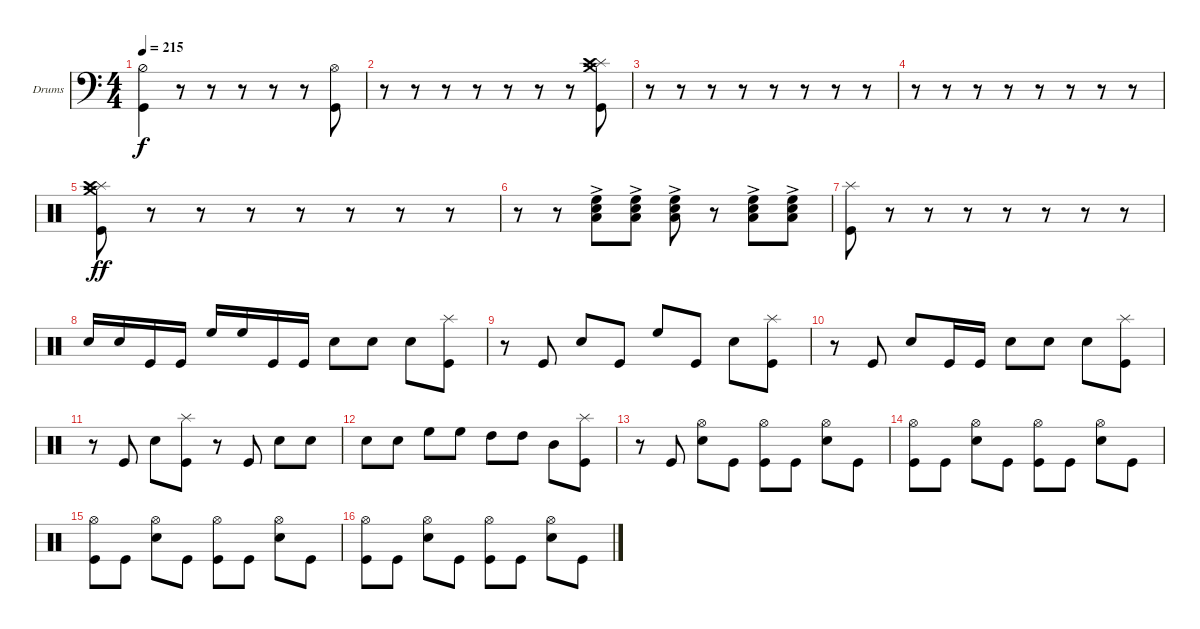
\bracketExtendMode groupsimilarinstruments
\firstSystemTrackNameOrientation horizontal
\otherSystemsTrackNameOrientation horizontal
\track ("Drumkit" "Drums") {instrument percussion}
\staff {score}
\articulation defaults
\ts (4 4)
\tempo 215
\clef f4
\ks c
("Kick (hit)" "Hi-Hat (half)").4{dy f} r.8 r.8 r.8 r.8 r.8 ("Kick (hit)" "Hi-Hat (open)").8 |
r.8 r.8 r.8 r.8 r.8 r.8 r.8 ("Kick (hit)" "Splash (hit)" "Crash high (hit)" "Crash medium (hit)").8 |
r.8 r.8 r.8 r.8 r.8 r.8 r.8 r.8 |
r.8 r.8 r.8 r.8 r.8 r.8 r.8 r.8 |
\clef neutral
("Kick (hit)" "Splash (hit)" "Crash high (hit)" "Crash medium (hit)").8{dy ff} r.8 r.8 r.8 r.8 r.8 r.8 r.8 |
r.8 r.8 ("Snare (hit) 2"{ac} "High Floor Tom (hit)"{ac} "Low Tom (hit)"{ac}).8 ("Snare (hit) 2"{ac} "High Floor Tom (hit)"{ac} "Low Tom (hit)"{ac}).8 ("Snare (hit) 2"{ac} "High Floor Tom (hit)"{ac} "Low Tom (hit)"{ac}).8 r.8 ("Snare (hit) 2"{ac} "High Floor Tom (hit)"{ac} "Low Tom (hit)"{ac}).8 ("Snare (hit) 2"{ac} "High Floor Tom (hit)"{ac} "Low Tom (hit)"{ac}).8 |
("Kick (hit)" "Splash (hit)").8 r.8 r.8 r.8 r.8 r.8 r.8 r.8 |
"Snare (hit) 2".16 "Snare (hit) 2".16 "Kick (hit)".16 "Kick (hit)".16 "High Floor Tom (hit)".16 "High Floor Tom (hit)".16 "Kick (hit)".16 "Kick (hit)".16 "Snare (hit) 2".8 "Snare (hit) 2".8 "Snare (hit) 2".8 ("Kick (hit)" "Splash (hit)").8 |
r.8 "Kick (hit)".8 "Snare (hit) 2".8 "Kick (hit)".8 "High Floor Tom (hit)".8 "Kick (hit)".8 "Snare (hit) 2".8 ("Kick (hit)" "Splash (hit)").8 |
r.8 "Kick (hit)".8 "Snare (hit) 2".8 "Kick (hit)".16 "Kick (hit)".16 "Snare (hit) 2".8 "Snare (hit) 2".8 "Snare (hit) 2".8 ("Kick (hit)" "Splash (hit)").8 |
r.8 "Kick (hit)".8 "Snare (hit) 2".8 ("Kick (hit)" "Splash (hit)").8 r.8 "Kick (hit)".8 "Snare (hit) 2".8 "Snare (hit) 2".8 |
"Snare (hit) 2".8 "Snare (hit) 2".8 "High Floor Tom (hit)".8 "High Floor Tom (hit)".8 "High Tom (hit)".8 "High Tom (hit)".8 "Mid Tom (hit)".8 ("Kick (hit)" "Splash (hit)").8 |
r.8 "Kick (hit)".8 ("Snare (hit) 2" "Hi-Hat (open)").8 "Kick (hit)".8 ("Kick (hit)" "Hi-Hat (open)").8 "Kick (hit)".8 ("Snare (hit) 2" "Hi-Hat (open)").8 "Kick (hit)".8 |
("Kick (hit)" "Hi-Hat (open)").8 "Kick (hit)".8 ("Snare (hit) 2" "Hi-Hat (open)").8 "Kick (hit)".8 ("Kick (hit)" "Hi-Hat (open)").8 "Kick (hit)".8 ("Snare (hit) 2" "Hi-Hat (open)").8 "Kick (hit)".8 |
("Kick (hit)" "Hi-Hat (open)").8 "Kick (hit)".8 ("Snare (hit) 2" "Hi-Hat (open)").8 "Kick (hit)".8 ("Kick (hit)" "Hi-Hat (open)").8 "Kick (hit)".8 ("Snare (hit) 2" "Hi-Hat (open)").8 "Kick (hit)".8 |
("Kick (hit)" "Hi-Hat (open)").8 "Kick (hit)".8 ("Snare (hit) 2" "Hi-Hat (open)").8 "Kick (hit)".8 ("Kick (hit)" "Hi-Hat (open)").8 "Kick (hit)".8 ("Snare (hit) 2" "Hi-Hat (open)").8 "Kick (hit)".8
